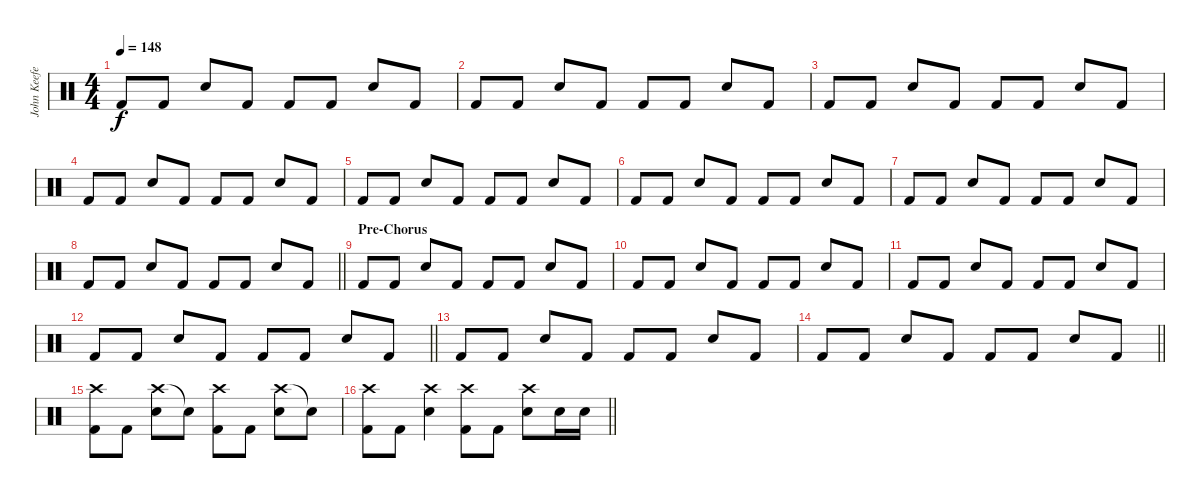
\track ("John Keefe (Percussion)" "John Keefe") {instrument percussion}
\staff {score}
\articulation defaults
\ts (4 4)
\tempo 148
\clef neutral
\ks c "Kick (hit) 2".8{dy f} "Kick (hit) 2".8 "Snare (hit) 2".8 "Kick (hit) 2".8 "Kick (hit) 2".8 "Kick (hit) 2".8 "Snare (hit) 2".8 "Kick (hit) 2".8
|
"Kick (hit) 2".8 "Kick (hit) 2".8 "Snare (hit) 2".8 "Kick (hit) 2".8 "Kick (hit) 2".8 "Kick (hit) 2".8 "Snare (hit) 2".8 "Kick (hit) 2".8 |
"Kick (hit) 2".8 "Kick (hit) 2".8 "Snare (hit) 2".8 "Kick (hit) 2".8 "Kick (hit) 2".8 "Kick (hit) 2".8 "Snare (hit) 2".8 "Kick (hit) 2".8 |
"Kick (hit) 2".8 "Kick (hit) 2".8 "Snare (hit) 2".8 "Kick (hit) 2".8 "Kick (hit) 2".8 "Kick (hit) 2".8 "Snare (hit) 2".8 "Kick (hit) 2".8 |
"Kick (hit) 2".8 "Kick (hit) 2".8 "Snare (hit) 2".8 "Kick (hit) 2".8 "Kick (hit) 2".8 "Kick (hit) 2".8 "Snare (hit) 2".8 "Kick (hit) 2".8 |
"Kick (hit) 2".8 "Kick (hit) 2".8 "Snare (hit) 2".8 "Kick (hit) 2".8 "Kick (hit) 2".8 "Kick (hit) 2".8 "Snare (hit) 2".8 "Kick (hit) 2".8 |
"Kick (hit) 2".8 "Kick (hit) 2".8 "Snare (hit) 2".8 "Kick (hit) 2".8 "Kick (hit) 2".8 "Kick (hit) 2".8 "Snare (hit) 2".8 "Kick (hit) 2".8 |
\barLineRight lightlight "Kick (hit) 2".8 "Kick (hit) 2".8 "Snare (hit) 2".8 "Kick (hit) 2".8 "Kick (hit) 2".8 "Kick (hit) 2".8 "Snare (hit) 2".8 "Kick (hit) 2".8
|
\section ("" "Pre-Chorus")
"Kick (hit) 2".8 "Kick (hit) 2".8 "Snare (hit) 2".8 "Kick (hit) 2".8 "Kick (hit) 2".8 "Kick (hit) 2".8 "Snare (hit) 2".8 "Kick (hit) 2".8 |
"Kick (hit) 2".8 "Kick (hit) 2".8 "Snare (hit) 2".8 "Kick (hit) 2".8 "Kick (hit) 2".8 "Kick (hit) 2".8 "Snare (hit) 2".8 "Kick (hit) 2".8 |
"Kick (hit) 2".8 "Kick (hit) 2".8 "Snare (hit) 2".8 "Kick (hit) 2".8 "Kick (hit) 2".8 "Kick (hit) 2".8 "Snare (hit) 2".8 "Kick (hit) 2".8 |
\barLineRight lightlight "Kick (hit) 2".8 "Kick (hit) 2".8 "Snare (hit) 2".8 "Kick (hit) 2".8 "Kick (hit) 2".8 "Kick (hit) 2".8 "Snare (hit) 2".8 "Kick (hit) 2".8
|
"Kick (hit) 2".8 "Kick (hit) 2".8 "Snare (hit) 2".8 "Kick (hit) 2".8 "Kick (hit) 2".8 "Kick (hit) 2".8 "Snare (hit) 2".8 "Kick (hit) 2".8 |
\barLineRight lightlight "Kick (hit) 2".8 "Kick (hit) 2".8 "Snare (hit) 2".8 "Kick (hit) 2".8 "Kick (hit) 2".8 "Kick (hit) 2".8 "Snare (hit) 2".8 "Kick (hit) 2".8
|
("Crash high (hit)" "Kick (hit) 2").8 "Kick (hit) 2".8 ("Crash high (hit)" "Snare (hit) 2").8 "Snare (hit) 2"{t}.8 ("Crash high (hit)" "Kick (hit) 2").8 "Kick (hit) 2".8 ("Crash high (hit)" "Snare (hit) 2").8 "Snare (hit) 2"{t}.8 |
\barLineRight lightlight
("Crash high (hit)" "Kick (hit) 2").8 "Kick (hit) 2".8 ("Crash high (hit)" "Snare (hit) 2").4 ("Crash high (hit)" "Kick (hit) 2").8 "Kick (hit) 2".8 ("Crash high (hit)" "Snare (hit) 2").8 "Snare (hit) 2".16 "Snare (hit) 2".16
